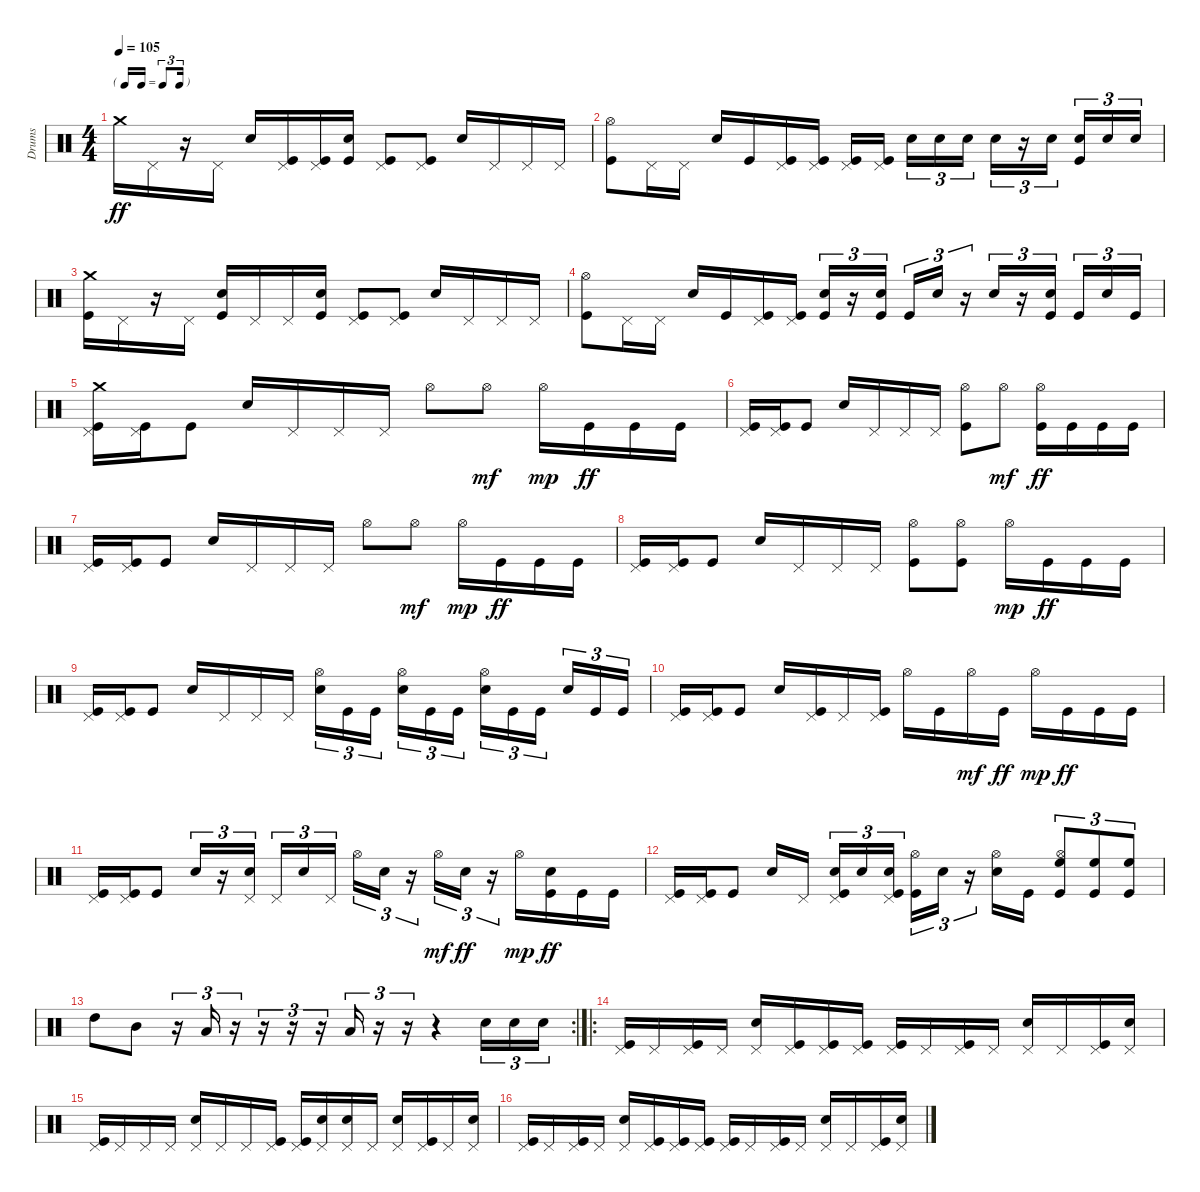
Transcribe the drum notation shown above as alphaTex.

\track ("Drums" "Drums") {instrument percussion}
\staff {score}
\articulation defaults
\ts (4 4)
\tf triplet16th
\tempo 105
\clef neutral
\ks c "Crash medium (hit)".16{dy ff} "Pedal Hi-Hat (hit)".16
r.16 "Pedal Hi-Hat (hit)".16 "Snare (hit) 2".16 ("Pedal Hi-Hat (hit)" "Kick (hit)").16 ("Pedal Hi-Hat (hit)" "Kick (hit)").16 ("Snare (hit) 2" "Kick (hit)").16 ("Pedal Hi-Hat (hit)" "Kick (hit)").8 ("Pedal Hi-Hat (hit)" "Kick (hit)").8 "Snare (hit) 2".16 "Pedal Hi-Hat (hit)".16 "Pedal Hi-Hat (hit)".16 "Pedal Hi-Hat (hit)".16 |
("Hi-Hat (open)" "Kick (hit)").8 "Pedal Hi-Hat (hit)".16 "Pedal Hi-Hat (hit)".16 "Snare (hit) 2".16 "Kick (hit)".16 ("Pedal Hi-Hat (hit)" "Kick (hit)").16 ("Pedal Hi-Hat (hit)" "Kick (hit)").16 ("Pedal Hi-Hat (hit)" "Kick (hit)").16 ("Pedal Hi-Hat (hit)" "Kick (hit)").16{beam splitsecondary} "Snare (hit) 2".16{tu (3 2)} "Snare (hit) 2".16{tu (3 2)} "Snare (hit) 2".16{tu (3 2)} "Snare (hit) 2".16{tu (3 2)} r.16{tu (3 2)} "Snare (hit) 2".16{tu (3 2) beam splitsecondary} ("Snare (hit) 2" "Kick (hit)").16{tu (3 2)} "Snare (hit) 2".16{tu (3 2)} "Snare (hit) 2".16{tu (3 2)} |
("Crash medium (hit)" "Kick (hit)").16 "Pedal Hi-Hat (hit)".16 r.16 "Pedal Hi-Hat (hit)".16 ("Snare (hit) 2" "Kick (hit)").16 "Pedal Hi-Hat (hit)".16 "Pedal Hi-Hat (hit)".16 ("Snare (hit) 2" "Kick (hit)").16 ("Pedal Hi-Hat (hit)" "Kick (hit)").8 ("Pedal Hi-Hat (hit)" "Kick (hit)").8 "Snare (hit) 2".16 "Pedal Hi-Hat (hit)".16 "Pedal Hi-Hat (hit)".16 "Pedal Hi-Hat (hit)".16 |
("Hi-Hat (open)" "Kick (hit)").8 "Pedal Hi-Hat (hit)".16 "Pedal Hi-Hat (hit)".16 "Snare (hit) 2".16 "Kick (hit)".16 ("Pedal Hi-Hat (hit)" "Kick (hit)").16 ("Pedal Hi-Hat (hit)" "Kick (hit)").16 ("Snare (hit) 2" "Kick (hit)").16{tu (3 2)} r.16{tu (3 2)} ("Snare (hit) 2" "Kick (hit)").16{tu (3 2) beam splitsecondary} "Kick (hit)".16{tu (3 2)} "Snare (hit) 2".16{tu (3 2)} r.16{tu (3 2)} "Snare (hit) 2".16{tu (3 2)} r.16{tu (3 2)} ("Snare (hit) 2" "Kick (hit)").16{tu (3 2) beam splitsecondary} "Kick (hit)".16{tu (3 2)} "Snare (hit) 2".16{tu (3 2)} "Kick (hit)".16{tu (3 2)} |
("Pedal Hi-Hat (hit)" "Crash medium (hit)" "Kick (hit)").16 ("Pedal Hi-Hat (hit)" "Kick (hit)").16 "Kick (hit)".8 "Snare (hit) 2".16 "Pedal Hi-Hat (hit)".16 "Pedal Hi-Hat (hit)".16 "Pedal Hi-Hat (hit)".16 "Hi-Hat (open)".8 "Hi-Hat (open)".8{dy mf} "Hi-Hat (open)".16{dy mp} "Kick (hit)".16{dy ff} "Kick (hit)".16 "Kick (hit)".16 |
("Pedal Hi-Hat (hit)" "Kick (hit)").16 ("Pedal Hi-Hat (hit)" "Kick (hit)").16 "Kick (hit)".8 "Snare (hit) 2".16 "Pedal Hi-Hat (hit)".16 "Pedal Hi-Hat (hit)".16 "Pedal Hi-Hat (hit)".16 ("Hi-Hat (open)" "Kick (hit)").8 "Hi-Hat (open)".8{dy mf} ("Hi-Hat (open)" "Kick (hit)").16{dy ff} "Kick (hit)".16 "Kick (hit)".16 "Kick (hit)".16 |
("Pedal Hi-Hat (hit)" "Kick (hit)").16 ("Pedal Hi-Hat (hit)" "Kick (hit)").16 "Kick (hit)".8 "Snare (hit) 2".16 "Pedal Hi-Hat (hit)".16 "Pedal Hi-Hat (hit)".16 "Pedal Hi-Hat (hit)".16 "Hi-Hat (open)".8 "Hi-Hat (open)".8{dy mf} "Hi-Hat (open)".16{dy mp} "Kick (hit)".16{dy ff} "Kick (hit)".16 "Kick (hit)".16 |
("Pedal Hi-Hat (hit)" "Kick (hit)").16 ("Pedal Hi-Hat (hit)" "Kick (hit)").16 "Kick (hit)".8 "Snare (hit) 2".16 "Pedal Hi-Hat (hit)".16 "Pedal Hi-Hat (hit)".16 "Pedal Hi-Hat (hit)".16 ("Hi-Hat (open)" "Kick (hit)").8 ("Hi-Hat (open)" "Kick (hit)").8 "Hi-Hat (open)".16{dy mp} "Kick (hit)".16{dy ff} "Kick (hit)".16 "Kick (hit)".16 |
("Pedal Hi-Hat (hit)" "Kick (hit)").16 ("Pedal Hi-Hat (hit)" "Kick (hit)").16 "Kick (hit)".8 "Snare (hit) 2".16 "Pedal Hi-Hat (hit)".16 "Pedal Hi-Hat (hit)".16 "Pedal Hi-Hat (hit)".16 ("Hi-Hat (open)" "Snare (hit) 2").16{tu (3 2)} "Kick (hit)".16{tu (3 2)} "Kick (hit)".16{tu (3 2) beam splitsecondary} ("Hi-Hat (open)" "Snare (hit) 2").16{tu (3 2)} "Kick (hit)".16{tu (3 2)} "Kick (hit)".16{tu (3 2)} ("Hi-Hat (open)" "Snare (hit) 2").16{tu (3 2)} "Kick (hit)".16{tu (3 2)} "Kick (hit)".16{tu (3 2) beam splitsecondary} "Snare (hit) 2".16{tu (3 2)} "Kick (hit)".16{tu (3 2)} "Kick (hit)".16{tu (3 2)} |
("Pedal Hi-Hat (hit)" "Kick (hit)").16 ("Pedal Hi-Hat (hit)" "Kick (hit)").16 "Kick (hit)".8 "Snare (hit) 2".16 ("Pedal Hi-Hat (hit)" "Kick (hit)").16 "Pedal Hi-Hat (hit)".16 ("Pedal Hi-Hat (hit)" "Kick (hit)").16 "Hi-Hat (open)".16 "Kick (hit)".16 "Hi-Hat (open)".16{dy mf} "Kick (hit)".16{dy ff} "Hi-Hat (open)".16{dy mp} "Kick (hit)".16{dy ff} "Kick (hit)".16 "Kick (hit)".16 |
("Pedal Hi-Hat (hit)" "Kick (hit)").16 ("Pedal Hi-Hat (hit)" "Kick (hit)").16 "Kick (hit)".8 "Snare (hit) 2".16{tu (3 2)} r.16{tu (3 2)} ("Pedal Hi-Hat (hit)" "Snare (hit) 2").16{tu (3 2) beam splitsecondary} "Pedal Hi-Hat (hit)".16{tu (3 2)} "Snare (hit) 2".16{tu (3 2)} "Pedal Hi-Hat (hit)".16{tu (3 2)} "Hi-Hat (open)".16{tu (3 2)} "Snare (hit) 2".16{tu (3 2)} r.16{tu (3 2)} "Hi-Hat (open)".16{tu (3 2) dy mf} "Snare (hit) 2".16{tu (3 2) dy ff} r.16{tu (3 2)} "Hi-Hat (open)".16{dy mp} ("Snare (hit) 2" "Kick (hit)").16{dy ff} "Kick (hit)".16 "Kick (hit)".16 |
("Pedal Hi-Hat (hit)" "Kick (hit)").16 ("Pedal Hi-Hat (hit)" "Kick (hit)").16 "Kick (hit)".8 "Snare (hit) 2".16 "Pedal Hi-Hat (hit)".16{beam splitsecondary} ("Pedal Hi-Hat (hit)" "Snare (hit) 2" "Kick (hit)").16{tu (3 2)} "Snare (hit) 2".16{tu (3 2)} ("Pedal Hi-Hat (hit)" "Snare (hit) 2" "Kick (hit)").16{tu (3 2)} ("Hi-Hat (open)" "Kick (hit)").16{tu (3 2)} "Snare (hit) 2".16{tu (3 2)} r.16{tu (3 2)} ("Hi-Hat (open)" "Snare (hit) 2").16 "Kick (hit)".16 ("Hi-Hat (open)" "High Floor Tom (hit)" "Kick (hit)").8{tu (3 2)} ("High Floor Tom (hit)" "Kick (hit)").8{tu (3 2)} ("High Floor Tom (hit)" "Kick (hit)").8{tu (3 2)} |
\rc 2 "High Tom (hit)".8 "Mid Tom (hit)".8
r.16{tu (3 2)} "Low Tom (hit)".16{tu (3 2)} r.16{tu (3 2)} r.16{tu (3 2)} r.16{tu (3 2)} r.16{tu (3 2)} "Low Floor Tom (hit)".16{tu (3 2)} r.16{tu (3 2)} r.16{tu (3 2)} r.4 "Snare (hit) 2".16{tu (3 2)} "Snare (hit) 2".16{tu (3 2)} "Snare (hit) 2".16{tu (3 2)} |
\ro
("Pedal Hi-Hat (hit)" "Kick (hit)").16 "Pedal Hi-Hat (hit)".16 ("Pedal Hi-Hat (hit)" "Kick (hit)").16 "Pedal Hi-Hat (hit)".16 ("Pedal Hi-Hat (hit)" "Snare (hit) 2").16 ("Pedal Hi-Hat (hit)" "Kick (hit)").16 ("Pedal Hi-Hat (hit)" "Kick (hit)").16 ("Pedal Hi-Hat (hit)" "Kick (hit)").16 ("Pedal Hi-Hat (hit)" "Kick (hit)").16 "Pedal Hi-Hat (hit)".16 ("Pedal Hi-Hat (hit)" "Kick (hit)").16 "Pedal Hi-Hat (hit)".16 ("Pedal Hi-Hat (hit)" "Snare (hit) 2").16 "Pedal Hi-Hat (hit)".16 ("Pedal Hi-Hat (hit)" "Kick (hit)").16 ("Pedal Hi-Hat (hit)" "Snare (hit) 2").16 |
("Pedal Hi-Hat (hit)" "Kick (hit)").16 "Pedal Hi-Hat (hit)".16 "Pedal Hi-Hat (hit)".16 "Pedal Hi-Hat (hit)".16 ("Pedal Hi-Hat (hit)" "Snare (hit) 2").16 "Pedal Hi-Hat (hit)".16 "Pedal Hi-Hat (hit)".16 ("Pedal Hi-Hat (hit)" "Kick (hit)").16 ("Pedal Hi-Hat (hit)" "Kick (hit)").16 ("Pedal Hi-Hat (hit)" "Snare (hit) 2").16 ("Pedal Hi-Hat (hit)" "Snare (hit) 2").16 "Pedal Hi-Hat (hit)".16 ("Pedal Hi-Hat (hit)" "Snare (hit) 2").16 ("Pedal Hi-Hat (hit)" "Kick (hit)").16 "Pedal Hi-Hat (hit)".16 ("Pedal Hi-Hat (hit)" "Snare (hit) 2").16 |
("Pedal Hi-Hat (hit)" "Kick (hit)").16 "Pedal Hi-Hat (hit)".16 ("Pedal Hi-Hat (hit)" "Kick (hit)").16 "Pedal Hi-Hat (hit)".16 ("Pedal Hi-Hat (hit)" "Snare (hit) 2").16 ("Pedal Hi-Hat (hit)" "Kick (hit)").16 ("Pedal Hi-Hat (hit)" "Kick (hit)").16 ("Pedal Hi-Hat (hit)" "Kick (hit)").16 ("Pedal Hi-Hat (hit)" "Kick (hit)").16 "Pedal Hi-Hat (hit)".16 ("Pedal Hi-Hat (hit)" "Kick (hit)").16 "Pedal Hi-Hat (hit)".16 ("Pedal Hi-Hat (hit)" "Snare (hit) 2").16 "Pedal Hi-Hat (hit)".16 ("Pedal Hi-Hat (hit)" "Kick (hit)").16 ("Pedal Hi-Hat (hit)" "Snare (hit) 2").16
